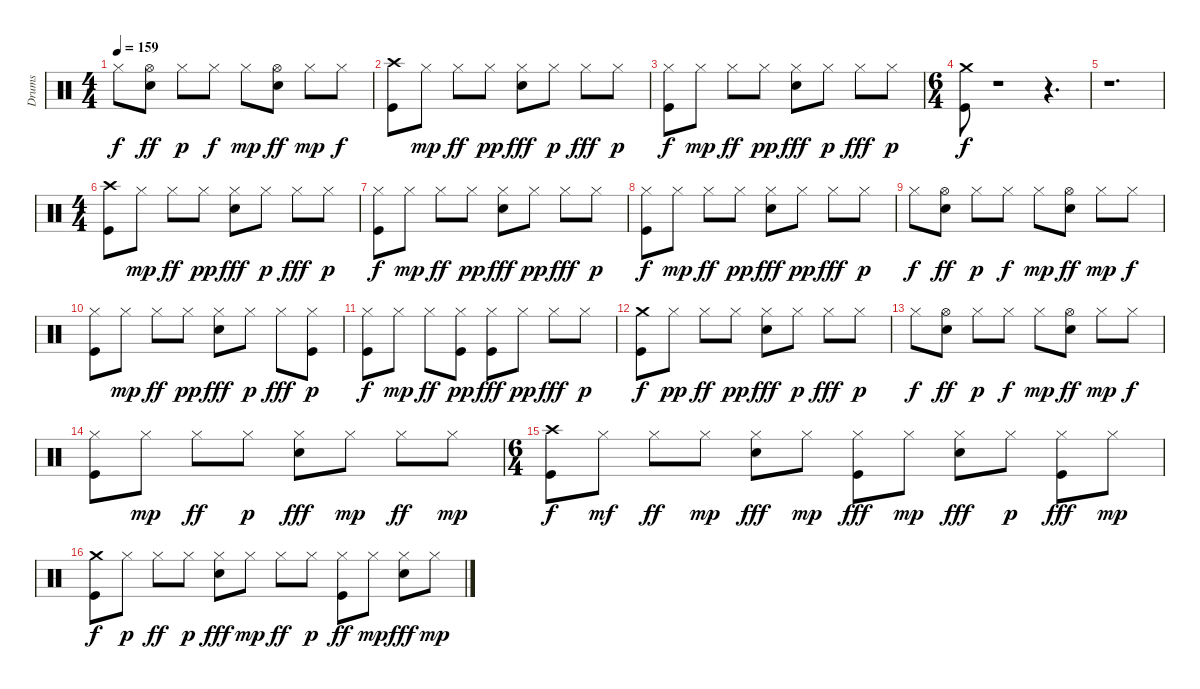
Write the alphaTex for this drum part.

\track ("Drums" "Drums") {instrument percussion}
\staff {score}
\articulation defaults
\ts (4 4)
\tempo 159
\clef neutral
\ks c "Hi-Hat (closed)".8{dy f}
("Electric Snare (hit)" "Hi-Hat (open)").8{dy ff} "Hi-Hat (closed)".8{dy p} "Hi-Hat (closed)".8{dy f} "Hi-Hat (closed)".8{dy mp} ("Electric Snare (hit)" "Hi-Hat (open)").8{dy ff} "Hi-Hat (closed)".8{dy mp} "Hi-Hat (closed)".8{dy f} |
("Kick (hit)" "Crash high (hit)").8 "Hi-Hat (closed)".8{dy mp} "Hi-Hat (closed)".8{dy ff} "Hi-Hat (closed)".8{dy pp} ("Electric Snare (hit)" "Hi-Hat (closed)").8{dy fff} "Hi-Hat (closed)".8{dy p} "Hi-Hat (closed)".8{dy fff} "Hi-Hat (closed)".8{dy p} |
("Kick (hit)" "Hi-Hat (closed)").8{dy f} "Hi-Hat (closed)".8{dy mp} "Hi-Hat (closed)".8{dy ff} "Hi-Hat (closed)".8{dy pp} ("Electric Snare (hit)" "Hi-Hat (closed)").8{dy fff} "Hi-Hat (closed)".8{dy p} "Hi-Hat (closed)".8{dy fff} "Hi-Hat (closed)".8{dy p} |
\ts (6 4)
("Kick (hit)" "Crash medium (hit)").8{dy f} r.1 r.4{d} |
r.1{d} |
\ts (4 4)
("Kick (hit)" "Crash high (hit)").8 "Hi-Hat (closed)".8{dy mp} "Hi-Hat (closed)".8{dy ff} "Hi-Hat (closed)".8{dy pp} ("Electric Snare (hit)" "Hi-Hat (closed)").8{dy fff} "Hi-Hat (closed)".8{dy p} "Hi-Hat (closed)".8{dy fff} "Hi-Hat (closed)".8{dy p} |
("Kick (hit)" "Hi-Hat (closed)").8{dy f} "Hi-Hat (closed)".8{dy mp} "Hi-Hat (closed)".8{dy ff} "Hi-Hat (closed)".8{dy pp} ("Electric Snare (hit)" "Hi-Hat (closed)").8{dy fff} "Hi-Hat (closed)".8{dy pp} "Hi-Hat (closed)".8{dy fff} "Hi-Hat (closed)".8{dy p} |
("Kick (hit)" "Hi-Hat (closed)").8{dy f} "Hi-Hat (closed)".8{dy mp} "Hi-Hat (closed)".8{dy ff} "Hi-Hat (closed)".8{dy pp} ("Electric Snare (hit)" "Hi-Hat (closed)").8{dy fff} "Hi-Hat (closed)".8{dy pp} "Hi-Hat (closed)".8{dy fff} "Hi-Hat (closed)".8{dy p} |
"Hi-Hat (closed)".8{dy f} ("Electric Snare (hit)" "Hi-Hat (open)").8{dy ff} "Hi-Hat (closed)".8{dy p} "Hi-Hat (closed)".8{dy f} "Hi-Hat (closed)".8{dy mp} ("Electric Snare (hit)" "Hi-Hat (open)").8{dy ff} "Hi-Hat (closed)".8{dy mp} "Hi-Hat (closed)".8{dy f} |
("Kick (hit)" "Hi-Hat (closed)").8 "Hi-Hat (closed)".8{dy mp} "Hi-Hat (closed)".8{dy ff} "Hi-Hat (closed)".8{dy pp} ("Electric Snare (hit)" "Hi-Hat (closed)").8{dy fff} "Hi-Hat (closed)".8{dy p} "Hi-Hat (closed)".8{dy fff} ("Kick (hit)" "Hi-Hat (closed)").8{dy p} |
("Kick (hit)" "Hi-Hat (closed)").8{dy f} "Hi-Hat (closed)".8{dy mp} "Hi-Hat (closed)".8{dy ff} ("Kick (hit)" "Hi-Hat (closed)").8{dy pp} ("Kick (hit)" "Hi-Hat (closed)").8{dy fff} "Hi-Hat (closed)".8{dy pp} "Hi-Hat (closed)".8{dy fff} "Hi-Hat (closed)".8{dy p} |
("Kick (hit)" "Crash medium (hit)").8{dy f} "Hi-Hat (closed)".8{dy pp} "Hi-Hat (closed)".8{dy ff} "Hi-Hat (closed)".8{dy pp} ("Electric Snare (hit)" "Hi-Hat (closed)").8{dy fff} "Hi-Hat (closed)".8{dy p} "Hi-Hat (closed)".8{dy fff} "Hi-Hat (closed)".8{dy p} |
"Hi-Hat (closed)".8{dy f} ("Electric Snare (hit)" "Hi-Hat (open)").8{dy ff} "Hi-Hat (closed)".8{dy p} "Hi-Hat (closed)".8{dy f} "Hi-Hat (closed)".8{dy mp} ("Electric Snare (hit)" "Hi-Hat (open)").8{dy ff} "Hi-Hat (closed)".8{dy mp} "Hi-Hat (closed)".8{dy f} |
("Kick (hit)" "Hi-Hat (closed)").8 "Hi-Hat (closed)".8{dy mp} "Hi-Hat (closed)".8{dy ff} "Hi-Hat (closed)".8{dy p} ("Electric Snare (hit)" "Hi-Hat (closed)").8{dy fff} "Hi-Hat (closed)".8{dy mp} "Hi-Hat (closed)".8{dy ff} "Hi-Hat (closed)".8{dy mp} |
\ts (6 4)
("Kick (hit)" "Crash high (hit)").8{dy f} "Hi-Hat (closed)".8{dy mf} "Hi-Hat (closed)".8{dy ff} "Hi-Hat (closed)".8{dy mp} ("Electric Snare (hit)" "Hi-Hat (closed)").8{dy fff} "Hi-Hat (closed)".8{dy mp} ("Kick (hit)" "Hi-Hat (closed)").8{dy fff} "Hi-Hat (closed)".8{dy mp} ("Electric Snare (hit)" "Hi-Hat (closed)").8{dy fff} "Hi-Hat (closed)".8{dy p} ("Kick (hit)" "Hi-Hat (closed)").8{dy fff} "Hi-Hat (closed)".8{dy mp} |
("Kick (hit)" "Crash medium (hit)").8{dy f} "Hi-Hat (closed)".8{dy p} "Hi-Hat (closed)".8{dy ff} "Hi-Hat (closed)".8{dy p} ("Electric Snare (hit)" "Hi-Hat (closed)").8{dy fff} "Hi-Hat (closed)".8{dy mp} "Hi-Hat (closed)".8{dy ff} "Hi-Hat (closed)".8{dy p} ("Kick (hit)" "Hi-Hat (closed)").8{dy ff} "Hi-Hat (closed)".8{dy mp} ("Electric Snare (hit)" "Hi-Hat (closed)").8{dy fff} "Hi-Hat (closed)".8{dy mp}
